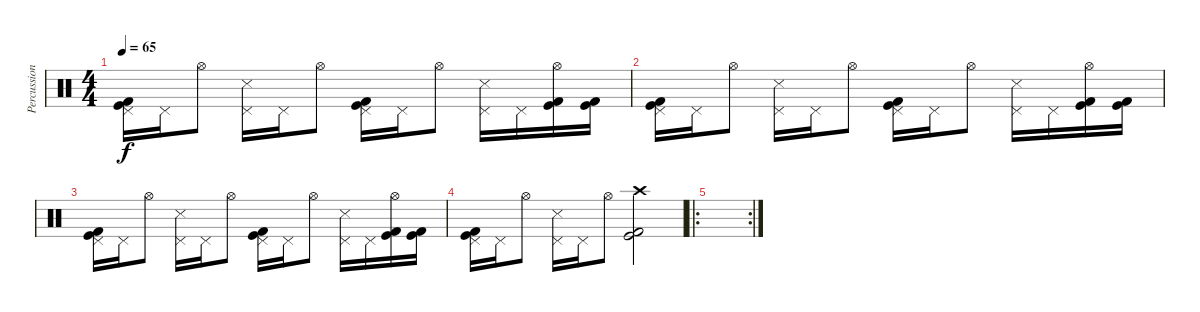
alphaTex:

\track ("Percussion" "Percussion") {instrument percussion}
\staff {score}
\articulation defaults
\ts (4 4)
\tempo 65
\clef neutral
\ks c
("Pedal Hi-Hat (hit)" "Kick (hit)" "Kick (hit) 2").16{dy f} "Pedal Hi-Hat (hit)".16 "Hi-Hat (open)".8 ("Pedal Hi-Hat (hit)" "Snare (side stick) 3").16 "Pedal Hi-Hat (hit)".16 "Hi-Hat (open)".8 ("Pedal Hi-Hat (hit)" "Kick (hit) 2" "Kick (hit)").16 "Pedal Hi-Hat (hit)".16 "Hi-Hat (open)".8 ("Pedal Hi-Hat (hit)" "Snare (side stick) 3").16 "Pedal Hi-Hat (hit)".16 ("Hi-Hat (open)" "Kick (hit)" "Kick (hit) 2").16 ("Kick (hit)" "Kick (hit) 2").16 |
("Pedal Hi-Hat (hit)" "Kick (hit)" "Kick (hit) 2").16 "Pedal Hi-Hat (hit)".16 "Hi-Hat (open)".8 ("Pedal Hi-Hat (hit)" "Snare (side stick) 3").16 "Pedal Hi-Hat (hit)".16 "Hi-Hat (open)".8 ("Pedal Hi-Hat (hit)" "Kick (hit) 2" "Kick (hit)").16 "Pedal Hi-Hat (hit)".16 "Hi-Hat (open)".8 ("Pedal Hi-Hat (hit)" "Snare (side stick) 3").16 "Pedal Hi-Hat (hit)".16 ("Hi-Hat (open)" "Kick (hit)" "Kick (hit) 2").16 ("Kick (hit)" "Kick (hit) 2").16 |
("Pedal Hi-Hat (hit)" "Kick (hit)" "Kick (hit) 2").16 "Pedal Hi-Hat (hit)".16 "Hi-Hat (open)".8 ("Pedal Hi-Hat (hit)" "Snare (side stick) 3").16 "Pedal Hi-Hat (hit)".16 "Hi-Hat (open)".8 ("Pedal Hi-Hat (hit)" "Kick (hit) 2" "Kick (hit)").16 "Pedal Hi-Hat (hit)".16 "Hi-Hat (open)".8 ("Pedal Hi-Hat (hit)" "Snare (side stick) 3").16 "Pedal Hi-Hat (hit)".16 ("Hi-Hat (open)" "Kick (hit)" "Kick (hit) 2").16 ("Kick (hit)" "Kick (hit) 2").16 |
("Pedal Hi-Hat (hit)" "Kick (hit)" "Kick (hit) 2").16 "Pedal Hi-Hat (hit)".16 "Hi-Hat (open)".8 ("Pedal Hi-Hat (hit)" "Snare (side stick) 3").16 "Pedal Hi-Hat (hit)".16 "Hi-Hat (open)".8 ("Crash high (hit)" "Kick (hit) 2" "Kick (hit)").2 |
\ro
\rc 2
